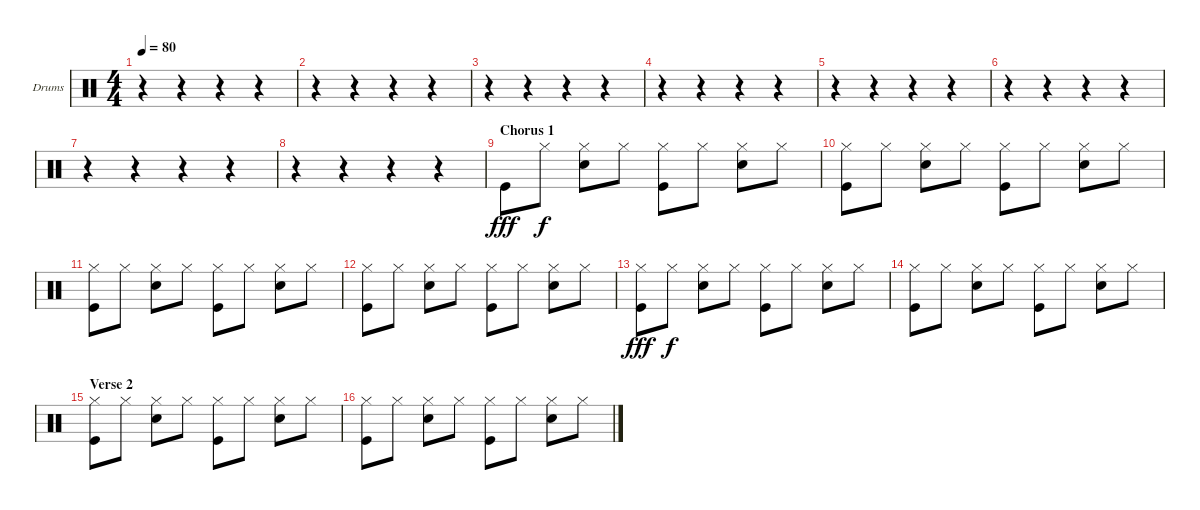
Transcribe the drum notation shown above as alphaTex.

\bracketExtendMode groupsimilarinstruments
\firstSystemTrackNameOrientation horizontal
\otherSystemsTrackNameOrientation horizontal
\chordDiagramsInScore
\track ("Drumkit" "Drums") {instrument percussion}
\staff {score}
\articulation defaults
\ts (4 4)
\tempo 80
\clef neutral
\ks c
r.4{dy fff} r.4 r.4 r.4 |
r.4 r.4 r.4 r.4 |
r.4 r.4 r.4 r.4 |
r.4 r.4 r.4 r.4 |
r.4 r.4 r.4 r.4 |
r.4 r.4 r.4 r.4 |
r.4 r.4 r.4 r.4 |
r.4 r.4 r.4 r.4 |
\section ("" "Chorus 1")
"Kick (hit)".8 "Hi-Hat (closed)".8{dy f} ("Hi-Hat (closed)" "Snare (hit) 2").8 "Hi-Hat (closed)".8 ("Hi-Hat (closed)" "Kick (hit)").8 "Hi-Hat (closed)".8 ("Hi-Hat (closed)" "Snare (hit) 2").8 "Hi-Hat (closed)".8 |
("Hi-Hat (closed)" "Kick (hit)").8 "Hi-Hat (closed)".8 ("Hi-Hat (closed)" "Snare (hit) 2").8 "Hi-Hat (closed)".8 ("Hi-Hat (closed)" "Kick (hit)").8 "Hi-Hat (closed)".8 ("Hi-Hat (closed)" "Snare (hit) 2").8 "Hi-Hat (closed)".8 |
("Hi-Hat (closed)" "Kick (hit)").8 "Hi-Hat (closed)".8 ("Hi-Hat (closed)" "Snare (hit) 2").8 "Hi-Hat (closed)".8 ("Hi-Hat (closed)" "Kick (hit)").8 "Hi-Hat (closed)".8 ("Hi-Hat (closed)" "Snare (hit) 2").8 "Hi-Hat (closed)".8 |
("Hi-Hat (closed)" "Kick (hit)").8 "Hi-Hat (closed)".8 ("Hi-Hat (closed)" "Snare (hit) 2").8 "Hi-Hat (closed)".8 ("Hi-Hat (closed)" "Kick (hit)").8 "Hi-Hat (closed)".8 ("Hi-Hat (closed)" "Snare (hit) 2").8 "Hi-Hat (closed)".8 |
("Hi-Hat (closed)" "Kick (hit)").8{dy fff} "Hi-Hat (closed)".8{dy f} ("Hi-Hat (closed)" "Snare (hit) 2").8 "Hi-Hat (closed)".8 ("Hi-Hat (closed)" "Kick (hit)").8 "Hi-Hat (closed)".8 ("Hi-Hat (closed)" "Snare (hit) 2").8 "Hi-Hat (closed)".8 |
("Hi-Hat (closed)" "Kick (hit)").8 "Hi-Hat (closed)".8 ("Hi-Hat (closed)" "Snare (hit) 2").8 "Hi-Hat (closed)".8 ("Hi-Hat (closed)" "Kick (hit)").8 "Hi-Hat (closed)".8 ("Hi-Hat (closed)" "Snare (hit) 2").8 "Hi-Hat (closed)".8 |
\section ("" "Verse 2")
("Hi-Hat (closed)" "Kick (hit)").8 "Hi-Hat (closed)".8 ("Hi-Hat (closed)" "Snare (hit) 2").8 "Hi-Hat (closed)".8 ("Hi-Hat (closed)" "Kick (hit)").8 "Hi-Hat (closed)".8 ("Hi-Hat (closed)" "Snare (hit) 2").8 "Hi-Hat (closed)".8 |
("Hi-Hat (closed)" "Kick (hit)").8 "Hi-Hat (closed)".8 ("Hi-Hat (closed)" "Snare (hit) 2").8 "Hi-Hat (closed)".8 ("Hi-Hat (closed)" "Kick (hit)").8 "Hi-Hat (closed)".8 ("Hi-Hat (closed)" "Snare (hit) 2").8 "Hi-Hat (closed)".8
